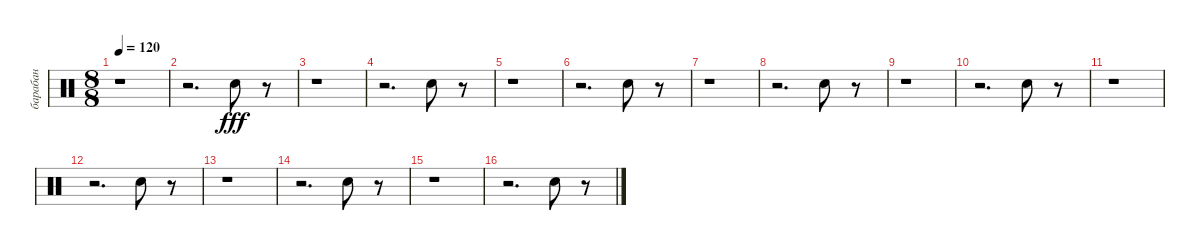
\track ("барабан" "барабан") {instrument percussion}
\staff {score}
\articulation defaults
\ts (8 8)
\tempo 120
\clef neutral
\ks c
r.1{dy fff} |
r.2{d} "Electric Snare (hit)".8 r.8 |
r.1 |
r.2{d} "Electric Snare (hit)".8 r.8 |
r.1 |
r.2{d} "Electric Snare (hit)".8 r.8 |
r.1 |
r.2{d} "Electric Snare (hit)".8 r.8 |
r.1 |
r.2{d} "Electric Snare (hit)".8{volume 15} r.8 |
r.1 |
r.2{d} "Electric Snare (hit)".8{volume 14} r.8 |
r.1 |
r.2{d} "Electric Snare (hit)".8{volume 12} r.8 |
r.1 |
r.2{d} "Electric Snare (hit)".8{volume 10} r.8
